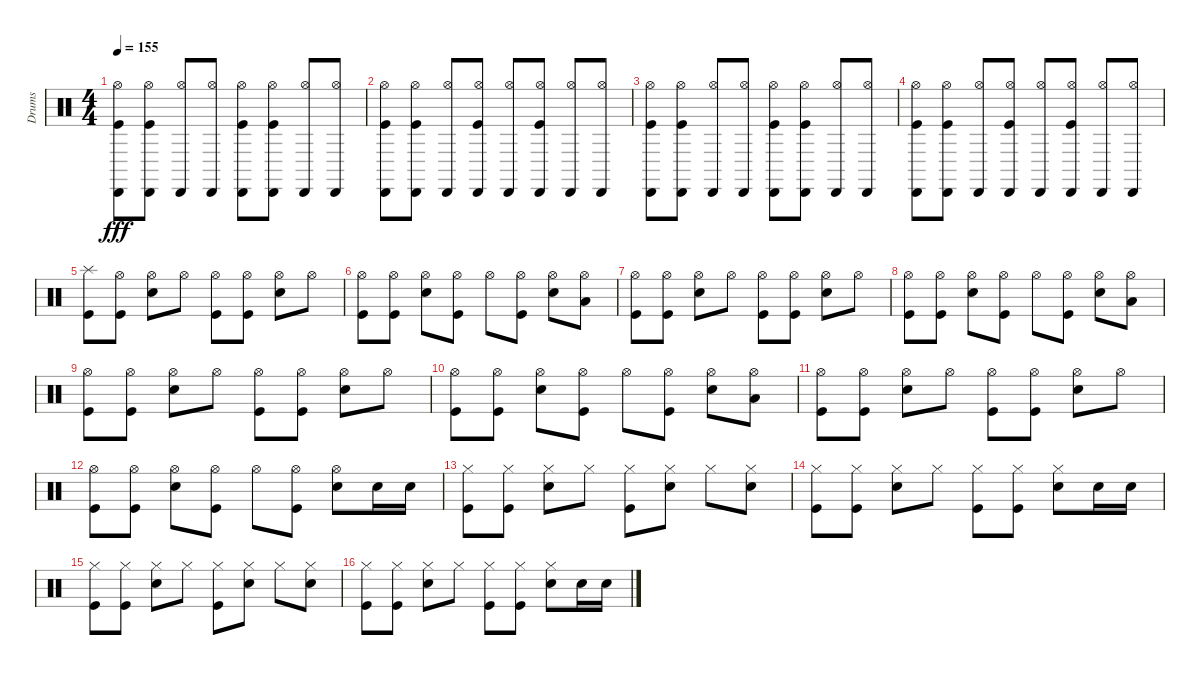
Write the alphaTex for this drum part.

\track ("Drums" "Drums") {instrument percussion}
\staff {score}
\articulation defaults
\ts (4 4)
\tempo 155
\clef neutral
\ks c
("Hi-Hat (open)" "Cabasa (hit)" "Kick (hit)").8{dy fff} ("Hi-Hat (open)" "Cabasa (hit)" "Kick (hit)").8 ("Hi-Hat (open)" "Cabasa (hit)").8 ("Hi-Hat (open)" "Cabasa (hit)").8 ("Hi-Hat (open)" "Cabasa (hit)" "Kick (hit)").8 ("Hi-Hat (open)" "Cabasa (hit)" "Kick (hit)").8 ("Hi-Hat (open)" "Cabasa (hit)").8 ("Hi-Hat (open)" "Cabasa (hit)").8 |
("Hi-Hat (open)" "Cabasa (hit)" "Kick (hit)").8 ("Hi-Hat (open)" "Cabasa (hit)" "Kick (hit)").8 ("Hi-Hat (open)" "Cabasa (hit)").8 ("Hi-Hat (open)" "Cabasa (hit)" "Kick (hit)").8 ("Hi-Hat (open)" "Cabasa (hit)").8 ("Hi-Hat (open)" "Cabasa (hit)" "Kick (hit)").8 ("Hi-Hat (open)" "Cabasa (hit)").8 ("Hi-Hat (open)" "Cabasa (hit)").8 |
("Hi-Hat (open)" "Cabasa (hit)" "Kick (hit)").8 ("Hi-Hat (open)" "Cabasa (hit)" "Kick (hit)").8 ("Hi-Hat (open)" "Cabasa (hit)").8 ("Hi-Hat (open)" "Cabasa (hit)").8 ("Hi-Hat (open)" "Cabasa (hit)" "Kick (hit)").8 ("Hi-Hat (open)" "Cabasa (hit)" "Kick (hit)").8 ("Hi-Hat (open)" "Cabasa (hit)").8 ("Hi-Hat (open)" "Cabasa (hit)").8 |
("Hi-Hat (open)" "Cabasa (hit)" "Kick (hit)").8 ("Hi-Hat (open)" "Cabasa (hit)" "Kick (hit)").8 ("Hi-Hat (open)" "Cabasa (hit)").8 ("Hi-Hat (open)" "Cabasa (hit)" "Kick (hit)").8 ("Hi-Hat (open)" "Cabasa (hit)").8 ("Hi-Hat (open)" "Cabasa (hit)" "Kick (hit)").8 ("Hi-Hat (open)" "Cabasa (hit)").8 ("Hi-Hat (open)" "Cabasa (hit)").8 |
("Splash (hit)" "Kick (hit)").8 ("Hi-Hat (open)" "Kick (hit)").8 ("Hi-Hat (open)" "Snare (hit) 2").8 "Hi-Hat (open)".8 ("Hi-Hat (open)" "Kick (hit)").8 ("Hi-Hat (open)" "Kick (hit)").8 ("Hi-Hat (open)" "Snare (hit) 2").8 "Hi-Hat (open)".8 |
("Hi-Hat (open)" "Kick (hit)").8 ("Hi-Hat (open)" "Kick (hit)").8 ("Hi-Hat (open)" "Snare (hit) 2").8 ("Hi-Hat (open)" "Kick (hit)").8 "Hi-Hat (open)".8 ("Hi-Hat (open)" "Kick (hit)").8 ("Hi-Hat (open)" "Snare (hit) 2").8 ("Hi-Hat (open)" "Low Tom (hit)").8 |
("Hi-Hat (open)" "Kick (hit)").8 ("Hi-Hat (open)" "Kick (hit)").8 ("Hi-Hat (open)" "Snare (hit) 2").8 "Hi-Hat (open)".8 ("Hi-Hat (open)" "Kick (hit)").8 ("Hi-Hat (open)" "Kick (hit)").8 ("Hi-Hat (open)" "Snare (hit) 2").8 "Hi-Hat (open)".8 |
("Hi-Hat (open)" "Kick (hit)").8 ("Hi-Hat (open)" "Kick (hit)").8 ("Hi-Hat (open)" "Snare (hit) 2").8 ("Hi-Hat (open)" "Kick (hit)").8 "Hi-Hat (open)".8 ("Hi-Hat (open)" "Kick (hit)").8 ("Hi-Hat (open)" "Snare (hit) 2").8 ("Hi-Hat (open)" "Low Tom (hit)").8 |
("Hi-Hat (open)" "Kick (hit)").8 ("Hi-Hat (open)" "Kick (hit)").8 ("Hi-Hat (open)" "Snare (hit) 2").8 "Hi-Hat (open)".8 ("Hi-Hat (open)" "Kick (hit)").8 ("Hi-Hat (open)" "Kick (hit)").8 ("Hi-Hat (open)" "Snare (hit) 2").8 "Hi-Hat (open)".8 |
("Hi-Hat (open)" "Kick (hit)").8 ("Hi-Hat (open)" "Kick (hit)").8 ("Hi-Hat (open)" "Snare (hit) 2").8 ("Hi-Hat (open)" "Kick (hit)").8 "Hi-Hat (open)".8 ("Hi-Hat (open)" "Kick (hit)").8 ("Hi-Hat (open)" "Snare (hit) 2").8 ("Hi-Hat (open)" "Low Tom (hit)").8 |
("Hi-Hat (open)" "Kick (hit)").8 ("Hi-Hat (open)" "Kick (hit)").8 ("Hi-Hat (open)" "Snare (hit) 2").8 "Hi-Hat (open)".8 ("Hi-Hat (open)" "Kick (hit)").8 ("Hi-Hat (open)" "Kick (hit)").8 ("Hi-Hat (open)" "Snare (hit) 2").8 "Hi-Hat (open)".8 |
("Hi-Hat (open)" "Kick (hit)").8 ("Hi-Hat (open)" "Kick (hit)").8 ("Hi-Hat (open)" "Snare (hit) 2").8 ("Hi-Hat (open)" "Kick (hit)").8 "Hi-Hat (open)".8 ("Hi-Hat (open)" "Kick (hit)").8 ("Hi-Hat (open)" "Snare (hit) 2").8 "Snare (hit) 2".16 "Snare (hit) 2".16 |
("Hi-Hat (closed)" "Kick (hit)").8 ("Hi-Hat (closed)" "Kick (hit)").8 ("Hi-Hat (closed)" "Snare (hit) 2").8 "Hi-Hat (closed)".8 ("Hi-Hat (closed)" "Kick (hit)").8 ("Hi-Hat (closed)" "Snare (hit) 2").8 "Hi-Hat (closed)".8 ("Hi-Hat (closed)" "Snare (hit) 2").8 |
("Hi-Hat (closed)" "Kick (hit)").8 ("Hi-Hat (closed)" "Kick (hit)").8 ("Hi-Hat (closed)" "Snare (hit) 2").8 "Hi-Hat (closed)".8 ("Hi-Hat (closed)" "Kick (hit)").8 ("Hi-Hat (closed)" "Kick (hit)").8 ("Hi-Hat (closed)" "Snare (hit) 2").8 "Snare (hit) 2".16 "Snare (hit) 2".16 |
("Hi-Hat (closed)" "Kick (hit)").8 ("Hi-Hat (closed)" "Kick (hit)").8 ("Hi-Hat (closed)" "Snare (hit) 2").8 "Hi-Hat (closed)".8 ("Hi-Hat (closed)" "Kick (hit)").8 ("Hi-Hat (closed)" "Snare (hit) 2").8 "Hi-Hat (closed)".8 ("Hi-Hat (closed)" "Snare (hit) 2").8 |
("Hi-Hat (closed)" "Kick (hit)").8 ("Hi-Hat (closed)" "Kick (hit)").8 ("Hi-Hat (closed)" "Snare (hit) 2").8 "Hi-Hat (closed)".8 ("Hi-Hat (closed)" "Kick (hit)").8 ("Hi-Hat (closed)" "Kick (hit)").8 ("Hi-Hat (closed)" "Snare (hit) 2").8 "Snare (hit) 2".16 "Snare (hit) 2".16
